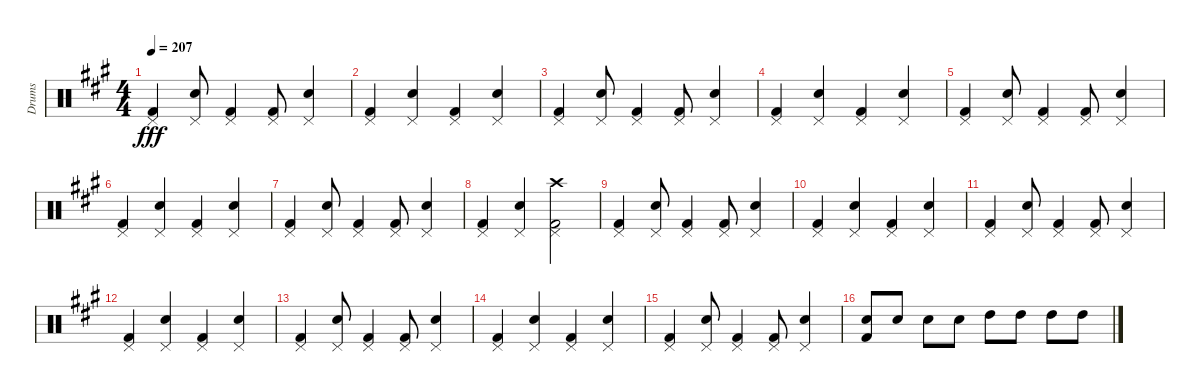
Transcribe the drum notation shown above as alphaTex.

\track ("Drums" "Drums") {instrument percussion}
\staff {score}
\articulation defaults
\ts (4 4)
\tempo 207
\clef neutral
\ks a
("Pedal Hi-Hat (hit)" "Kick (hit) 2").4{dy fff} ("Pedal Hi-Hat (hit)" "Snare (hit) 2").8 ("Pedal Hi-Hat (hit)" "Kick (hit) 2").4 ("Pedal Hi-Hat (hit)" "Kick (hit) 2").8 ("Pedal Hi-Hat (hit)" "Snare (hit) 2").4 |
("Pedal Hi-Hat (hit)" "Kick (hit) 2").4 ("Pedal Hi-Hat (hit)" "Snare (hit) 2").4 ("Pedal Hi-Hat (hit)" "Kick (hit) 2").4 ("Pedal Hi-Hat (hit)" "Snare (hit) 2").4 |
("Pedal Hi-Hat (hit)" "Kick (hit) 2").4 ("Pedal Hi-Hat (hit)" "Snare (hit) 2").8 ("Pedal Hi-Hat (hit)" "Kick (hit) 2").4 ("Pedal Hi-Hat (hit)" "Kick (hit) 2").8 ("Pedal Hi-Hat (hit)" "Snare (hit) 2").4 |
("Pedal Hi-Hat (hit)" "Kick (hit) 2").4 ("Pedal Hi-Hat (hit)" "Snare (hit) 2").4 ("Pedal Hi-Hat (hit)" "Kick (hit) 2").4 ("Pedal Hi-Hat (hit)" "Snare (hit) 2").4 |
("Pedal Hi-Hat (hit)" "Kick (hit) 2").4 ("Pedal Hi-Hat (hit)" "Snare (hit) 2").8 ("Pedal Hi-Hat (hit)" "Kick (hit) 2").4 ("Pedal Hi-Hat (hit)" "Kick (hit) 2").8 ("Pedal Hi-Hat (hit)" "Snare (hit) 2").4 |
("Pedal Hi-Hat (hit)" "Kick (hit) 2").4 ("Pedal Hi-Hat (hit)" "Snare (hit) 2").4 ("Pedal Hi-Hat (hit)" "Kick (hit) 2").4 ("Pedal Hi-Hat (hit)" "Snare (hit) 2").4 |
("Pedal Hi-Hat (hit)" "Kick (hit) 2").4 ("Pedal Hi-Hat (hit)" "Snare (hit) 2").8 ("Pedal Hi-Hat (hit)" "Kick (hit) 2").4 ("Pedal Hi-Hat (hit)" "Kick (hit) 2").8 ("Pedal Hi-Hat (hit)" "Snare (hit) 2").4 |
("Pedal Hi-Hat (hit)" "Kick (hit) 2").4 ("Pedal Hi-Hat (hit)" "Snare (hit) 2").4 ("Crash high (hit)" "Pedal Hi-Hat (hit)" "Kick (hit) 2").2 |
("Pedal Hi-Hat (hit)" "Kick (hit) 2").4 ("Pedal Hi-Hat (hit)" "Snare (hit) 2").8 ("Pedal Hi-Hat (hit)" "Kick (hit) 2").4 ("Pedal Hi-Hat (hit)" "Kick (hit) 2").8 ("Pedal Hi-Hat (hit)" "Snare (hit) 2").4 |
("Pedal Hi-Hat (hit)" "Kick (hit) 2").4 ("Pedal Hi-Hat (hit)" "Snare (hit) 2").4 ("Pedal Hi-Hat (hit)" "Kick (hit) 2").4 ("Pedal Hi-Hat (hit)" "Snare (hit) 2").4 |
("Pedal Hi-Hat (hit)" "Kick (hit) 2").4 ("Pedal Hi-Hat (hit)" "Snare (hit) 2").8 ("Pedal Hi-Hat (hit)" "Kick (hit) 2").4 ("Pedal Hi-Hat (hit)" "Kick (hit) 2").8 ("Pedal Hi-Hat (hit)" "Snare (hit) 2").4 |
("Pedal Hi-Hat (hit)" "Kick (hit) 2").4 ("Pedal Hi-Hat (hit)" "Snare (hit) 2").4 ("Pedal Hi-Hat (hit)" "Kick (hit) 2").4 ("Pedal Hi-Hat (hit)" "Snare (hit) 2").4 |
("Pedal Hi-Hat (hit)" "Kick (hit) 2").4 ("Pedal Hi-Hat (hit)" "Snare (hit) 2").8 ("Pedal Hi-Hat (hit)" "Kick (hit) 2").4 ("Pedal Hi-Hat (hit)" "Kick (hit) 2").8 ("Pedal Hi-Hat (hit)" "Snare (hit) 2").4 |
("Pedal Hi-Hat (hit)" "Kick (hit) 2").4 ("Pedal Hi-Hat (hit)" "Snare (hit) 2").4 ("Pedal Hi-Hat (hit)" "Kick (hit) 2").4 ("Pedal Hi-Hat (hit)" "Snare (hit) 2").4 |
("Pedal Hi-Hat (hit)" "Kick (hit) 2").4 ("Pedal Hi-Hat (hit)" "Snare (hit) 2").8 ("Pedal Hi-Hat (hit)" "Kick (hit) 2").4 ("Pedal Hi-Hat (hit)" "Kick (hit) 2").8 ("Pedal Hi-Hat (hit)" "Snare (hit) 2").4 |
("Snare (hit) 2" "Kick (hit) 2").8 "Snare (hit) 2".8 "Snare (hit) 2".8 "Snare (hit) 2".8 "High Tom (hit)".8 "High Tom (hit)".8 "High Tom (hit)".8 "High Tom (hit)".8
